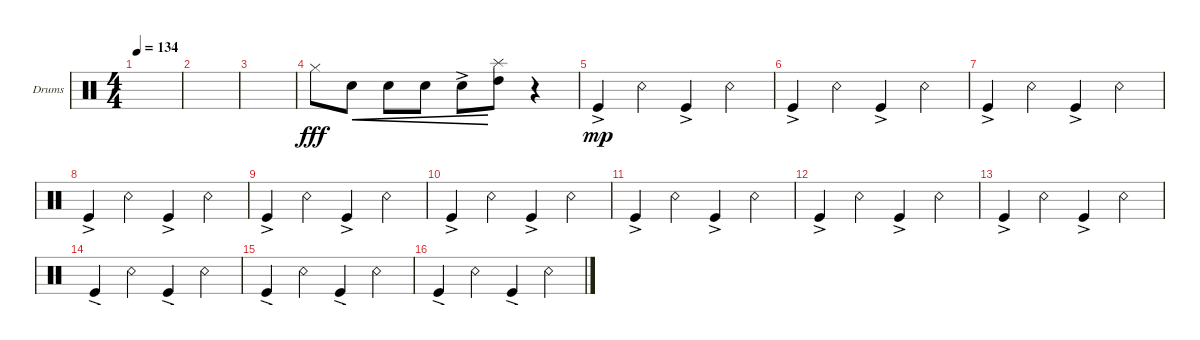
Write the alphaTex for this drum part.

\defaultSystemsLayout 4
\bracketExtendMode groupsimilarinstruments
\firstSystemTrackNameOrientation horizontal
\otherSystemsTrackNameOrientation horizontal
\track ("Drumkit" "Drums") {instrument percussion}
\staff {score}
\articulation defaults
\ts (4 4)
\tempo 134
\clef neutral
\ks c
|
|
|
"Hi-Hat (closed)".8{dy fff} "Snare (hit) 2".8{cre} "Snare (hit) 2".8{cre} "Snare (hit) 2".8{cre} "Snare (hit) 2"{ac}.8{cre} ("Splash (hit)" "High Tom (hit)").8 r.4 |
"Kick (hit)"{ac}.4{dy mp} "Snare (rim shot)".4 "Kick (hit)"{ac}.4 "Snare (rim shot)".4 |
"Kick (hit)"{ac}.4 "Snare (rim shot)".4 "Kick (hit)"{ac}.4 "Snare (rim shot)".4 |
"Kick (hit)"{ac}.4 "Snare (rim shot)".4 "Kick (hit)"{ac}.4 "Snare (rim shot)".4 |
"Kick (hit)"{ac}.4 "Snare (rim shot)".4 "Kick (hit)"{ac}.4 "Snare (rim shot)".4 |
"Kick (hit)"{ac}.4 "Snare (rim shot)".4 "Kick (hit)"{ac}.4 "Snare (rim shot)".4 |
"Kick (hit)"{ac}.4 "Snare (rim shot)".4 "Kick (hit)"{ac}.4 "Snare (rim shot)".4 |
"Kick (hit)"{ac}.4 "Snare (rim shot)".4 "Kick (hit)"{ac}.4 "Snare (rim shot)".4 |
"Kick (hit)"{ac}.4 "Snare (rim shot)".4 "Kick (hit)"{ac}.4 "Snare (rim shot)".4 |
"Kick (hit)"{ac}.4 "Snare (rim shot)".4 "Kick (hit)"{ac}.4 "Snare (rim shot)".4 |
"Kick (hit)"{ac}.4 "Snare (rim shot)".4 "Kick (hit)"{ac}.4 "Snare (rim shot)".4 |
"Kick (hit)"{ac}.4 "Snare (rim shot)".4 "Kick (hit)"{ac}.4 "Snare (rim shot)".4 |
"Kick (hit)"{ac}.4 "Snare (rim shot)".4 "Kick (hit)"{ac}.4 "Snare (rim shot)".4
